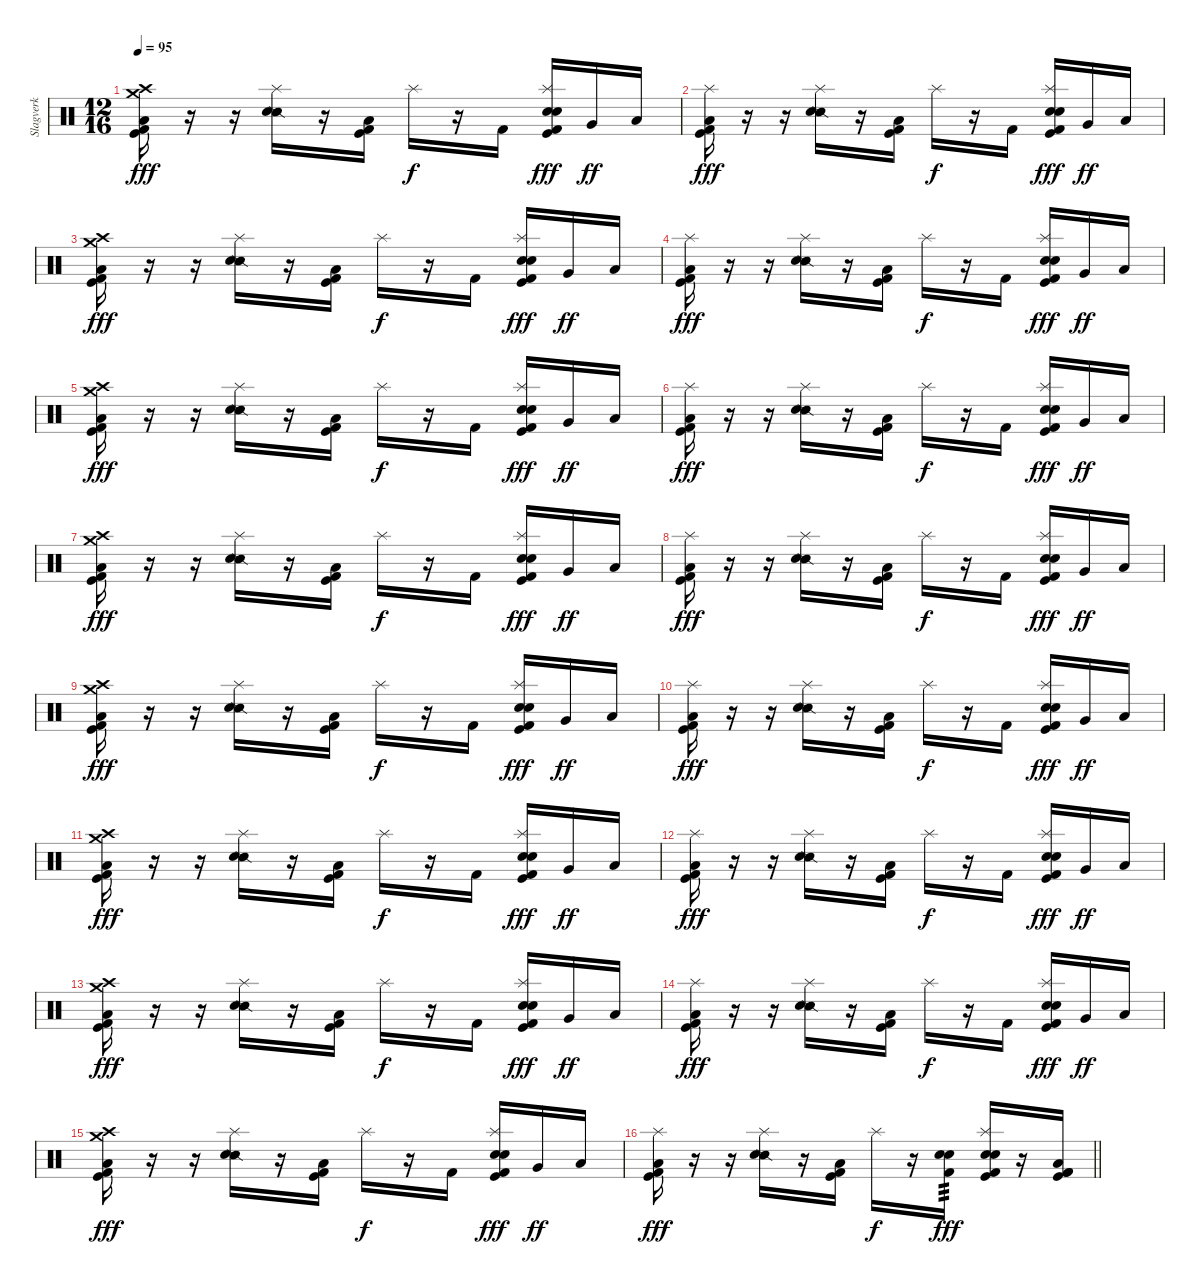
\track ("Slagverk" "Slagverk") {instrument percussion}
\staff {score}
\articulation defaults
\ts (12 16)
\tempo 95
\clef neutral
\ks c
("Crash high (hit)" "Crash medium (hit)" "Low Floor Tom (hit)" "Kick (hit)" "Kick (hit) 2").16{dy fff} r.16 r.16 ("Splash (hit)" "Snare (side stick) 2" "Snare (hit) 2").16 r.16 ("Low Floor Tom (hit)" "Kick (hit)" "Kick (hit) 2").16 "Splash (hit)".16{dy f} r.16 "Kick (hit) 2".16 ("Splash (hit)" "Snare (hit) 2" "Electric Snare (hit)" "Kick (hit)" "Kick (hit) 2").16{dy fff} "Very Low Tom (hit)".16{dy ff} "Low Floor Tom (hit)".16 |
("Splash (hit)" "Low Floor Tom (hit)" "Kick (hit)" "Kick (hit) 2").16{dy fff} r.16 r.16 ("Splash (hit)" "Snare (side stick) 2" "Snare (hit) 2").16 r.16 ("Low Floor Tom (hit)" "Kick (hit)" "Kick (hit) 2").16 "Splash (hit)".16{dy f} r.16 "Kick (hit) 2".16 ("Splash (hit)" "Snare (hit) 2" "Electric Snare (hit)" "Kick (hit)" "Kick (hit) 2").16{dy fff} "Very Low Tom (hit)".16{dy ff} "Low Floor Tom (hit)".16 |
("Crash high (hit)" "Crash medium (hit)" "Low Floor Tom (hit)" "Kick (hit)" "Kick (hit) 2").16{dy fff} r.16 r.16 ("Splash (hit)" "Snare (side stick) 2" "Snare (hit) 2").16 r.16 ("Low Floor Tom (hit)" "Kick (hit)" "Kick (hit) 2").16 "Splash (hit)".16{dy f} r.16 "Kick (hit) 2".16 ("Splash (hit)" "Snare (hit) 2" "Electric Snare (hit)" "Kick (hit)" "Kick (hit) 2").16{dy fff} "Very Low Tom (hit)".16{dy ff} "Low Floor Tom (hit)".16 |
("Splash (hit)" "Low Floor Tom (hit)" "Kick (hit)" "Kick (hit) 2").16{dy fff} r.16 r.16 ("Splash (hit)" "Snare (side stick) 2" "Snare (hit) 2").16 r.16 ("Low Floor Tom (hit)" "Kick (hit)" "Kick (hit) 2").16 "Splash (hit)".16{dy f} r.16 "Kick (hit) 2".16 ("Splash (hit)" "Snare (hit) 2" "Electric Snare (hit)" "Kick (hit)" "Kick (hit) 2").16{dy fff} "Very Low Tom (hit)".16{dy ff} "Low Floor Tom (hit)".16 |
("Crash high (hit)" "Crash medium (hit)" "Low Floor Tom (hit)" "Kick (hit)" "Kick (hit) 2").16{dy fff} r.16 r.16 ("Splash (hit)" "Snare (side stick) 2" "Snare (hit) 2").16 r.16 ("Low Floor Tom (hit)" "Kick (hit)" "Kick (hit) 2").16 "Splash (hit)".16{dy f} r.16 "Kick (hit) 2".16 ("Splash (hit)" "Snare (hit) 2" "Electric Snare (hit)" "Kick (hit)" "Kick (hit) 2").16{dy fff} "Very Low Tom (hit)".16{dy ff} "Low Floor Tom (hit)".16 |
("Splash (hit)" "Low Floor Tom (hit)" "Kick (hit)" "Kick (hit) 2").16{dy fff} r.16 r.16 ("Splash (hit)" "Snare (side stick) 2" "Snare (hit) 2").16 r.16 ("Low Floor Tom (hit)" "Kick (hit)" "Kick (hit) 2").16 "Splash (hit)".16{dy f} r.16 "Kick (hit) 2".16 ("Splash (hit)" "Snare (hit) 2" "Electric Snare (hit)" "Kick (hit)" "Kick (hit) 2").16{dy fff} "Very Low Tom (hit)".16{dy ff} "Low Floor Tom (hit)".16 |
("Crash high (hit)" "Crash medium (hit)" "Low Floor Tom (hit)" "Kick (hit)" "Kick (hit) 2").16{dy fff} r.16 r.16 ("Splash (hit)" "Snare (side stick) 2" "Snare (hit) 2").16 r.16 ("Low Floor Tom (hit)" "Kick (hit)" "Kick (hit) 2").16 "Splash (hit)".16{dy f} r.16 "Kick (hit) 2".16 ("Splash (hit)" "Snare (hit) 2" "Electric Snare (hit)" "Kick (hit)" "Kick (hit) 2").16{dy fff} "Very Low Tom (hit)".16{dy ff} "Low Floor Tom (hit)".16 |
("Splash (hit)" "Low Floor Tom (hit)" "Kick (hit)" "Kick (hit) 2").16{dy fff} r.16 r.16 ("Splash (hit)" "Snare (side stick) 2" "Snare (hit) 2").16 r.16 ("Low Floor Tom (hit)" "Kick (hit)" "Kick (hit) 2").16 "Splash (hit)".16{dy f} r.16 "Kick (hit) 2".16 ("Splash (hit)" "Snare (hit) 2" "Electric Snare (hit)" "Kick (hit)" "Kick (hit) 2").16{dy fff} "Very Low Tom (hit)".16{dy ff} "Low Floor Tom (hit)".16 |
("Crash high (hit)" "Crash medium (hit)" "Low Floor Tom (hit)" "Kick (hit)" "Kick (hit) 2").16{dy fff} r.16 r.16 ("Splash (hit)" "Snare (side stick) 2" "Snare (hit) 2").16 r.16 ("Low Floor Tom (hit)" "Kick (hit)" "Kick (hit) 2").16 "Splash (hit)".16{dy f} r.16 "Kick (hit) 2".16 ("Splash (hit)" "Snare (hit) 2" "Electric Snare (hit)" "Kick (hit)" "Kick (hit) 2").16{dy fff} "Very Low Tom (hit)".16{dy ff} "Low Floor Tom (hit)".16 |
("Splash (hit)" "Low Floor Tom (hit)" "Kick (hit)" "Kick (hit) 2").16{dy fff} r.16 r.16 ("Splash (hit)" "Snare (side stick) 2" "Snare (hit) 2").16 r.16 ("Low Floor Tom (hit)" "Kick (hit)" "Kick (hit) 2").16 "Splash (hit)".16{dy f} r.16 "Kick (hit) 2".16 ("Splash (hit)" "Snare (hit) 2" "Electric Snare (hit)" "Kick (hit)" "Kick (hit) 2").16{dy fff} "Very Low Tom (hit)".16{dy ff} "Low Floor Tom (hit)".16 |
("Crash high (hit)" "Crash medium (hit)" "Low Floor Tom (hit)" "Kick (hit)" "Kick (hit) 2").16{dy fff} r.16 r.16 ("Splash (hit)" "Snare (side stick) 2" "Snare (hit) 2").16 r.16 ("Low Floor Tom (hit)" "Kick (hit)" "Kick (hit) 2").16 "Splash (hit)".16{dy f} r.16 "Kick (hit) 2".16 ("Splash (hit)" "Snare (hit) 2" "Electric Snare (hit)" "Kick (hit)" "Kick (hit) 2").16{dy fff} "Very Low Tom (hit)".16{dy ff} "Low Floor Tom (hit)".16 |
("Splash (hit)" "Low Floor Tom (hit)" "Kick (hit)" "Kick (hit) 2").16{dy fff} r.16 r.16 ("Splash (hit)" "Snare (side stick) 2" "Snare (hit) 2").16 r.16 ("Low Floor Tom (hit)" "Kick (hit)" "Kick (hit) 2").16 "Splash (hit)".16{dy f} r.16 "Kick (hit) 2".16 ("Splash (hit)" "Snare (hit) 2" "Electric Snare (hit)" "Kick (hit)" "Kick (hit) 2").16{dy fff} "Very Low Tom (hit)".16{dy ff} "Low Floor Tom (hit)".16 |
("Crash high (hit)" "Crash medium (hit)" "Low Floor Tom (hit)" "Kick (hit)" "Kick (hit) 2").16{dy fff} r.16 r.16 ("Splash (hit)" "Snare (side stick) 2" "Snare (hit) 2").16 r.16 ("Low Floor Tom (hit)" "Kick (hit)" "Kick (hit) 2").16 "Splash (hit)".16{dy f} r.16 "Kick (hit) 2".16 ("Splash (hit)" "Snare (hit) 2" "Electric Snare (hit)" "Kick (hit)" "Kick (hit) 2").16{dy fff} "Very Low Tom (hit)".16{dy ff} "Low Floor Tom (hit)".16 |
("Splash (hit)" "Low Floor Tom (hit)" "Kick (hit)" "Kick (hit) 2").16{dy fff} r.16 r.16 ("Splash (hit)" "Snare (side stick) 2" "Snare (hit) 2").16 r.16 ("Low Floor Tom (hit)" "Kick (hit)" "Kick (hit) 2").16 "Splash (hit)".16{dy f} r.16 "Kick (hit) 2".16 ("Splash (hit)" "Snare (hit) 2" "Electric Snare (hit)" "Kick (hit)" "Kick (hit) 2").16{dy fff} "Very Low Tom (hit)".16{dy ff} "Low Floor Tom (hit)".16 |
("Crash high (hit)" "Crash medium (hit)" "Low Floor Tom (hit)" "Kick (hit)" "Kick (hit) 2").16{dy fff} r.16 r.16 ("Splash (hit)" "Snare (side stick) 2" "Snare (hit) 2").16 r.16 ("Low Floor Tom (hit)" "Kick (hit)" "Kick (hit) 2").16 "Splash (hit)".16{dy f} r.16 "Kick (hit) 2".16 ("Splash (hit)" "Snare (hit) 2" "Electric Snare (hit)" "Kick (hit)" "Kick (hit) 2").16{dy fff} "Very Low Tom (hit)".16{dy ff} "Low Floor Tom (hit)".16 |
\barLineRight lightlight
("Splash (hit)" "Low Floor Tom (hit)" "Kick (hit)" "Kick (hit) 2").16{dy fff} r.16 r.16 ("Splash (hit)" "Snare (side stick) 2" "Snare (hit) 2").16 r.16 ("Low Floor Tom (hit)" "Kick (hit)" "Kick (hit) 2").16 "Splash (hit)".16{dy f} r.16 ("Electric Snare (hit)" "Snare (hit) 2" "Kick (hit) 2").16{tp 3 dy fff} ("Splash (hit)" "Snare (hit) 2" "Electric Snare (hit)" "Kick (hit)" "Kick (hit) 2").16 r.16 ("Low Floor Tom (hit)" "Kick (hit) 2" "Kick (hit) 2" "Kick (hit)").16
